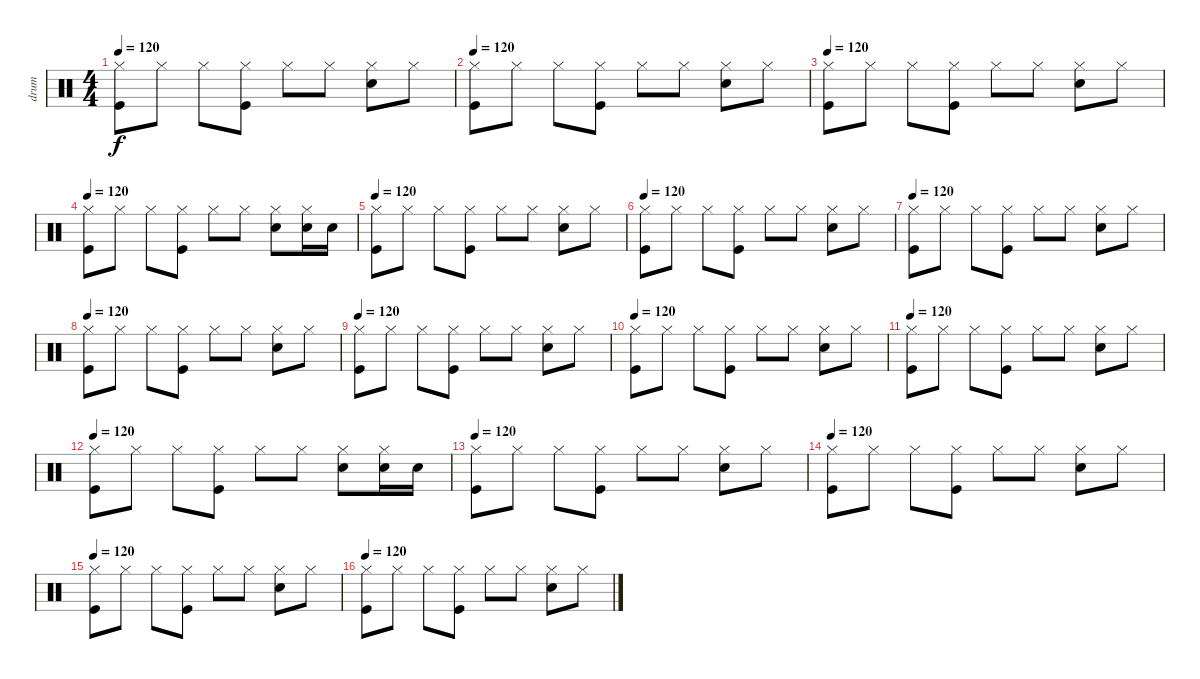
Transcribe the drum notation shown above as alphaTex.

\track ("drum" "drum") {instrument percussion}
\staff {score}
\articulation defaults
\ts (4 4)
\tempo 120
\clef neutral
\ks c
("Hi-Hat (closed)" "Kick (hit)").8{dy f} "Hi-Hat (closed)".8 "Hi-Hat (closed)".8 ("Kick (hit)" "Hi-Hat (closed)").8 "Hi-Hat (closed)".8 "Hi-Hat (closed)".8 ("Electric Snare (hit)" "Hi-Hat (closed)").8 "Hi-Hat (closed)".8 |
\tempo 120
("Hi-Hat (closed)" "Kick (hit)").8 "Hi-Hat (closed)".8 "Hi-Hat (closed)".8 ("Kick (hit)" "Hi-Hat (closed)").8 "Hi-Hat (closed)".8 "Hi-Hat (closed)".8 ("Electric Snare (hit)" "Hi-Hat (closed)").8 "Hi-Hat (closed)".8 |
\tempo 120
("Hi-Hat (closed)" "Kick (hit)").8 "Hi-Hat (closed)".8 "Hi-Hat (closed)".8 ("Kick (hit)" "Hi-Hat (closed)").8 "Hi-Hat (closed)".8 "Hi-Hat (closed)".8 ("Electric Snare (hit)" "Hi-Hat (closed)").8 "Hi-Hat (closed)".8 |
\tempo 120
("Hi-Hat (closed)" "Kick (hit)").8 "Hi-Hat (closed)".8 "Hi-Hat (closed)".8 ("Kick (hit)" "Hi-Hat (closed)").8 "Hi-Hat (closed)".8 "Hi-Hat (closed)".8 ("Electric Snare (hit)" "Hi-Hat (closed)").8 ("Electric Snare (hit)" "Hi-Hat (closed)").16 "Electric Snare (hit)".16 |
\tempo 120
("Hi-Hat (closed)" "Kick (hit)").8 "Hi-Hat (closed)".8 "Hi-Hat (closed)".8 ("Kick (hit)" "Hi-Hat (closed)").8 "Hi-Hat (closed)".8 "Hi-Hat (closed)".8 ("Electric Snare (hit)" "Hi-Hat (closed)").8 "Hi-Hat (closed)".8 |
\tempo 120
("Hi-Hat (closed)" "Kick (hit)").8 "Hi-Hat (closed)".8 "Hi-Hat (closed)".8 ("Kick (hit)" "Hi-Hat (closed)").8 "Hi-Hat (closed)".8 "Hi-Hat (closed)".8 ("Electric Snare (hit)" "Hi-Hat (closed)").8 "Hi-Hat (closed)".8 |
\tempo 120
("Hi-Hat (closed)" "Kick (hit)").8 "Hi-Hat (closed)".8 "Hi-Hat (closed)".8 ("Kick (hit)" "Hi-Hat (closed)").8 "Hi-Hat (closed)".8 "Hi-Hat (closed)".8 ("Electric Snare (hit)" "Hi-Hat (closed)").8 "Hi-Hat (closed)".8 |
\tempo 120
("Hi-Hat (closed)" "Kick (hit)").8 "Hi-Hat (closed)".8 "Hi-Hat (closed)".8 ("Kick (hit)" "Hi-Hat (closed)").8 "Hi-Hat (closed)".8 "Hi-Hat (closed)".8 ("Electric Snare (hit)" "Hi-Hat (closed)").8 "Hi-Hat (closed)".8 |
\tempo 120
("Hi-Hat (closed)" "Kick (hit)").8 "Hi-Hat (closed)".8 "Hi-Hat (closed)".8 ("Kick (hit)" "Hi-Hat (closed)").8 "Hi-Hat (closed)".8 "Hi-Hat (closed)".8 ("Electric Snare (hit)" "Hi-Hat (closed)").8 "Hi-Hat (closed)".8 |
\tempo 120
("Hi-Hat (closed)" "Kick (hit)").8 "Hi-Hat (closed)".8 "Hi-Hat (closed)".8 ("Kick (hit)" "Hi-Hat (closed)").8 "Hi-Hat (closed)".8 "Hi-Hat (closed)".8 ("Electric Snare (hit)" "Hi-Hat (closed)").8 "Hi-Hat (closed)".8 |
\tempo 120
("Hi-Hat (closed)" "Kick (hit)").8 "Hi-Hat (closed)".8 "Hi-Hat (closed)".8 ("Kick (hit)" "Hi-Hat (closed)").8 "Hi-Hat (closed)".8 "Hi-Hat (closed)".8 ("Electric Snare (hit)" "Hi-Hat (closed)").8 "Hi-Hat (closed)".8 |
\tempo 120
("Hi-Hat (closed)" "Kick (hit)").8 "Hi-Hat (closed)".8 "Hi-Hat (closed)".8 ("Kick (hit)" "Hi-Hat (closed)").8 "Hi-Hat (closed)".8 "Hi-Hat (closed)".8 ("Electric Snare (hit)" "Hi-Hat (closed)").8 ("Electric Snare (hit)" "Hi-Hat (closed)").16 "Electric Snare (hit)".16 |
\tempo 120
("Hi-Hat (closed)" "Kick (hit)").8 "Hi-Hat (closed)".8 "Hi-Hat (closed)".8 ("Kick (hit)" "Hi-Hat (closed)").8 "Hi-Hat (closed)".8 "Hi-Hat (closed)".8 ("Electric Snare (hit)" "Hi-Hat (closed)").8 "Hi-Hat (closed)".8 |
\tempo 120
("Hi-Hat (closed)" "Kick (hit)").8 "Hi-Hat (closed)".8 "Hi-Hat (closed)".8 ("Kick (hit)" "Hi-Hat (closed)").8 "Hi-Hat (closed)".8 "Hi-Hat (closed)".8 ("Electric Snare (hit)" "Hi-Hat (closed)").8 "Hi-Hat (closed)".8 |
\tempo 120
("Hi-Hat (closed)" "Kick (hit)").8 "Hi-Hat (closed)".8 "Hi-Hat (closed)".8 ("Kick (hit)" "Hi-Hat (closed)").8 "Hi-Hat (closed)".8 "Hi-Hat (closed)".8 ("Electric Snare (hit)" "Hi-Hat (closed)").8 "Hi-Hat (closed)".8 |
\tempo 120
("Hi-Hat (closed)" "Kick (hit)").8 "Hi-Hat (closed)".8 "Hi-Hat (closed)".8 ("Kick (hit)" "Hi-Hat (closed)").8 "Hi-Hat (closed)".8 "Hi-Hat (closed)".8 ("Electric Snare (hit)" "Hi-Hat (closed)").8 "Hi-Hat (closed)".8
